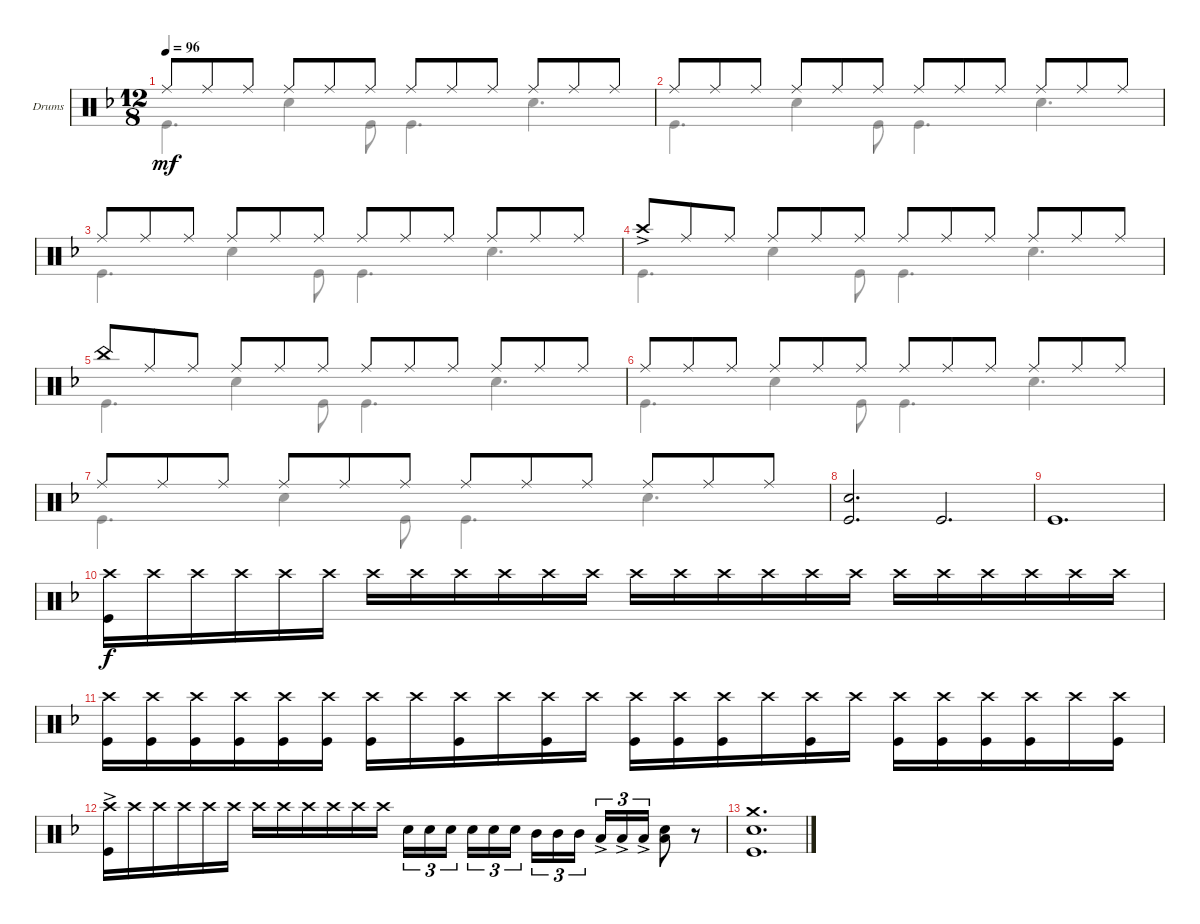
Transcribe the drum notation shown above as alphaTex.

\defaultSystemsLayout 4
\bracketExtendMode nobrackets
\firstSystemTrackNameOrientation horizontal
\otherSystemsTrackNameOrientation horizontal
\track ("Drumkit" "Drums") {multiBarRest instrument percussion}
\staff {score}
\articulation defaults
\voice
\ts (12 8)
\tempo 96
\clef neutral
\ks dminor "Ride (middle)".8{dy mf} "Ride (middle)".8 "Ride (middle)".8 "Ride (middle)".8 "Ride (middle)".8 "Ride (middle)".8 "Ride (middle)".8 "Ride (middle)".8 "Ride (middle)".8 "Ride (middle)".8 "Ride (middle)".8 "Ride (middle)".8
|
"Ride (middle)".8 "Ride (middle)".8 "Ride (middle)".8 "Ride (middle)".8 "Ride (middle)".8 "Ride (middle)".8 "Ride (middle)".8 "Ride (middle)".8 "Ride (middle)".8 "Ride (middle)".8 "Ride (middle)".8 "Ride (middle)".8 |
"Ride (middle)".8 "Ride (middle)".8 "Ride (middle)".8 "Ride (middle)".8 "Ride (middle)".8 "Ride (middle)".8 "Ride (middle)".8 "Ride (middle)".8 "Ride (middle)".8 "Ride (middle)".8 "Ride (middle)".8 "Ride (middle)".8 |
"Crash high (hit)"{ac}.8 "Ride (middle)".8 "Ride (middle)".8 "Ride (middle)".8 "Ride (middle)".8 "Ride (middle)".8 "Ride (middle)".8 "Ride (middle)".8 "Ride (middle)".8 "Ride (middle)".8 "Ride (middle)".8 "Ride (middle)".8 |
"China (hit)".8 "Ride (middle)".8 "Ride (middle)".8 "Ride (middle)".8 "Ride (middle)".8 "Ride (middle)".8 "Ride (middle)".8 "Ride (middle)".8 "Ride (middle)".8 "Ride (middle)".8 "Ride (middle)".8 "Ride (middle)".8 |
"Ride (middle)".8 "Ride (middle)".8 "Ride (middle)".8 "Ride (middle)".8 "Ride (middle)".8 "Ride (middle)".8 "Ride (middle)".8 "Ride (middle)".8 "Ride (middle)".8 "Ride (middle)".8 "Ride (middle)".8 "Ride (middle)".8 |
"Ride (middle)".8 "Ride (middle)".8 "Ride (middle)".8 "Ride (middle)".8 "Ride (middle)".8 "Ride (middle)".8 "Ride (middle)".8 "Ride (middle)".8 "Ride (middle)".8 "Ride (middle)".8 "Ride (middle)".8 "Ride (middle)".8 |
("Kick (hit)" "Snare (hit) 2").2{d} "Kick (hit)".2{d} |
"Kick (hit)".1{d} |
("Kick (hit)" "Crash high (hit)").16{dy f} "Crash high (hit)".16 "Crash high (hit)".16 "Crash high (hit)".16 "Crash high (hit)".16 "Crash high (hit)".16 "Crash high (hit)".16 "Crash high (hit)".16 "Crash high (hit)".16 "Crash high (hit)".16 "Crash high (hit)".16 "Crash high (hit)".16 "Crash high (hit)".16 "Crash high (hit)".16 "Crash high (hit)".16 "Crash high (hit)".16 "Crash high (hit)".16 "Crash high (hit)".16 "Crash high (hit)".16 "Crash high (hit)".16 "Crash high (hit)".16 "Crash high (hit)".16 "Crash high (hit)".16 "Crash high (hit)".16 |
("Crash high (hit)" "Kick (hit)").16 ("Crash high (hit)" "Kick (hit)").16 ("Crash high (hit)" "Kick (hit)").16 ("Crash high (hit)" "Kick (hit)").16 ("Crash high (hit)" "Kick (hit)").16 ("Crash high (hit)" "Kick (hit)").16 ("Crash high (hit)" "Kick (hit)").16 "Crash high (hit)".16 ("Crash high (hit)" "Kick (hit)").16 "Crash high (hit)".16 ("Crash high (hit)" "Kick (hit)").16 "Crash high (hit)".16 ("Crash high (hit)" "Kick (hit)").16 ("Crash high (hit)" "Kick (hit)").16 ("Crash high (hit)" "Kick (hit)").16 "Crash high (hit)".16 ("Crash high (hit)" "Kick (hit)").16 "Crash high (hit)".16 ("Crash high (hit)" "Kick (hit)").16 ("Crash high (hit)" "Kick (hit)").16 ("Crash high (hit)" "Kick (hit)").16 ("Crash high (hit)" "Kick (hit)").16 "Crash high (hit)".16 ("Crash high (hit)" "Kick (hit)").16 |
("Kick (hit)"{ac} "Crash high (hit)").16 "Crash high (hit)".16 "Crash high (hit)".16 "Crash high (hit)".16 "Crash high (hit)".16 "Crash high (hit)".16 "Crash high (hit)".16 "Crash high (hit)".16 "Crash high (hit)".16 "Crash high (hit)".16 "Crash high (hit)".16 "Crash high (hit)".16 "Snare (hit) 2".16{tu (3 2)} "Snare (hit) 2".16{tu (3 2)} "Snare (hit) 2".16{tu (3 2)} "Snare (hit) 2".16{tu (3 2)} "Snare (hit) 2".16{tu (3 2)} "Snare (hit) 2".16{tu (3 2)} "Mid Tom (hit)".16{tu (3 2)} "Mid Tom (hit)".16{tu (3 2)} "Mid Tom (hit)".16{tu (3 2)} "Low Tom (hit)"{ac}.16{tu (3 2)} "Low Tom (hit)"{ac}.16{tu (3 2)} "Low Tom (hit)"{ac}.16{tu (3 2)} ("Low Tom (hit)" "Snare (hit) 2").8 r.8 |
("Kick (hit)" "Snare (hit) 2" "Crash medium (hit)").1{d}
\voice
\clef neutral
\ottava regular
\simile none
\ks dminor "Kick (hit)".4{d dy mf} "Snare (hit) 2".4 "Kick (hit)".8 "Kick (hit)".4{d} "Snare (hit) 2".4{d}
|
"Kick (hit)".4{d} "Snare (hit) 2".4 "Kick (hit)".8 "Kick (hit)".4{d} "Snare (hit) 2".4{d} |
"Kick (hit)".4{d} "Snare (hit) 2".4 "Kick (hit)".8 "Kick (hit)".4{d} "Snare (hit) 2".4{d} |
"Kick (hit)".4{d} "Snare (hit) 2".4 "Kick (hit)".8 "Kick (hit)".4{d} "Snare (hit) 2".4{d} |
"Kick (hit)".4{d} "Snare (hit) 2".4 "Kick (hit)".8 "Kick (hit)".4{d} "Snare (hit) 2".4{d} |
"Kick (hit)".4{d} "Snare (hit) 2".4 "Kick (hit)".8 "Kick (hit)".4{d} "Snare (hit) 2".4{d} |
"Kick (hit)".4{d} "Snare (hit) 2".4 "Kick (hit)".8 "Kick (hit)".4{d} "Snare (hit) 2".4{d} |
|
|
|
|
|
